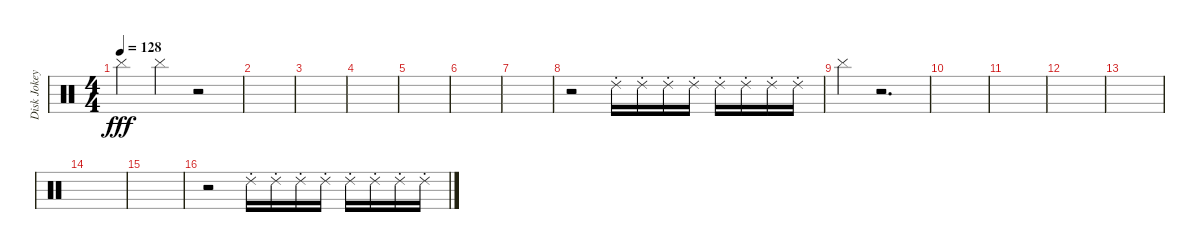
\track ("Disk Jokey" "Disk Jokey") {instrument percussion}
\staff {score}
\articulation defaults
\ts (4 4)
\tempo 128
\clef neutral
\ks c "Cymbal (hit)".4{dy fff} "Cymbal (hit)".4
r.2 |
|
|
|
|
|
|
r.2 "Ride (choke) 2".16 "Ride (choke) 2".16 "Ride (choke) 2".16 "Ride (choke) 2".16 "Ride (choke) 2".16 "Ride (choke) 2".16 "Ride (choke) 2".16 "Ride (choke) 2".16 |
"Cymbal (hit)".4 r.2{d} |
|
|
|
|
|
|
r.2 "Ride (choke) 2".16 "Ride (choke) 2".16 "Ride (choke) 2".16 "Ride (choke) 2".16 "Ride (choke) 2".16 "Ride (choke) 2".16 "Ride (choke) 2".16 "Ride (choke) 2".16
